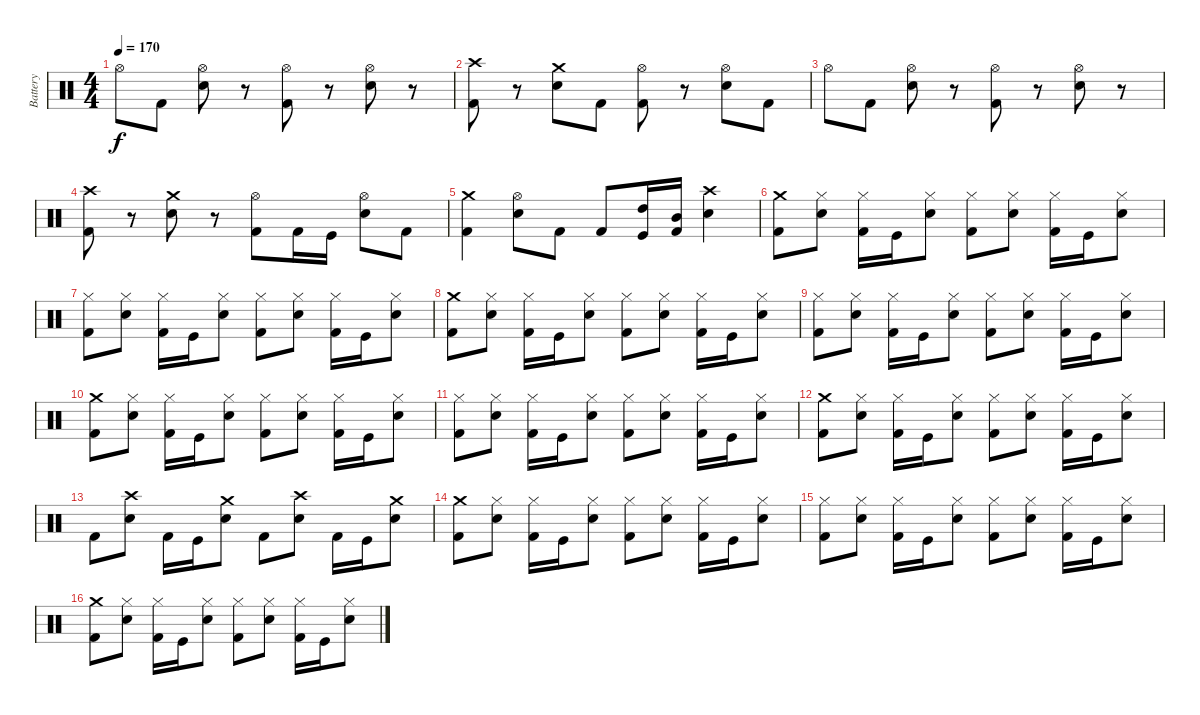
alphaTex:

\track ("Battery" "Battery") {instrument percussion}
\staff {score}
\articulation defaults
\ts (4 4)
\tempo 170
\clef neutral
\ks c "Hi-Hat (open)".8{dy f} "Kick (hit) 2".8
("Hi-Hat (open)" "Snare (hit) 2").8 r.8 ("Hi-Hat (open)" "Kick (hit) 2").8 r.8 ("Hi-Hat (open)" "Snare (hit) 2").8 r.8 |
("Crash high (hit)" "Kick (hit) 2").8 r.8 ("Crash medium (hit)" "Snare (hit) 2").8 "Kick (hit) 2".8 ("Hi-Hat (open)" "Kick (hit) 2").8 r.8 ("Hi-Hat (open)" "Snare (hit) 2").8 "Kick (hit) 2".8 |
"Hi-Hat (open)".8 "Kick (hit) 2".8 ("Hi-Hat (open)" "Snare (hit) 2").8 r.8 ("Hi-Hat (open)" "Kick (hit) 2").8 r.8 ("Hi-Hat (open)" "Snare (hit) 2").8 r.8 |
("Crash high (hit)" "Kick (hit) 2").8 r.8 ("Crash medium (hit)" "Snare (hit) 2").8 r.8 ("Hi-Hat (open)" "Kick (hit) 2").8 "Kick (hit) 2".16 "Kick (hit)".16 ("Hi-Hat (open)" "Snare (hit) 2").8 "Kick (hit) 2".8 |
("Crash medium (hit)" "Kick (hit) 2").4 ("Hi-Hat (open)" "Snare (hit) 2").8 "Kick (hit) 2".8 "Kick (hit) 2".8 ("High Tom (hit)" "Kick (hit)").16 ("Mid Tom (hit)" "Kick (hit) 2").16 ("Crash high (hit)" "Snare (hit) 2").4 |
("Crash medium (hit)" "Kick (hit) 2").8 ("Hi-Hat (closed)" "Snare (hit) 2").8 ("Hi-Hat (closed)" "Kick (hit) 2").16 "Kick (hit)".16 ("Hi-Hat (closed)" "Snare (hit) 2").8 ("Hi-Hat (closed)" "Kick (hit) 2").8 ("Hi-Hat (closed)" "Snare (hit) 2").8 ("Hi-Hat (closed)" "Kick (hit) 2").16 "Kick (hit)".16 ("Hi-Hat (closed)" "Snare (hit) 2").8 |
("Hi-Hat (closed)" "Kick (hit) 2").8 ("Hi-Hat (closed)" "Snare (hit) 2").8 ("Hi-Hat (closed)" "Kick (hit) 2").16 "Kick (hit)".16 ("Hi-Hat (closed)" "Snare (hit) 2").8 ("Hi-Hat (closed)" "Kick (hit) 2").8 ("Hi-Hat (closed)" "Snare (hit) 2").8 ("Hi-Hat (closed)" "Kick (hit) 2").16 "Kick (hit)".16 ("Hi-Hat (closed)" "Snare (hit) 2").8 |
("Crash medium (hit)" "Kick (hit) 2").8 ("Hi-Hat (closed)" "Snare (hit) 2").8 ("Hi-Hat (closed)" "Kick (hit) 2").16 "Kick (hit)".16 ("Hi-Hat (closed)" "Snare (hit) 2").8 ("Hi-Hat (closed)" "Kick (hit) 2").8 ("Hi-Hat (closed)" "Snare (hit) 2").8 ("Hi-Hat (closed)" "Kick (hit) 2").16 "Kick (hit)".16 ("Hi-Hat (closed)" "Snare (hit) 2").8 |
("Hi-Hat (closed)" "Kick (hit) 2").8 ("Hi-Hat (closed)" "Snare (hit) 2").8 ("Hi-Hat (closed)" "Kick (hit) 2").16 "Kick (hit)".16 ("Hi-Hat (closed)" "Snare (hit) 2").8 ("Hi-Hat (closed)" "Kick (hit) 2").8 ("Hi-Hat (closed)" "Snare (hit) 2").8 ("Hi-Hat (closed)" "Kick (hit) 2").16 "Kick (hit)".16 ("Hi-Hat (closed)" "Snare (hit) 2").8 |
("Crash medium (hit)" "Kick (hit) 2").8 ("Hi-Hat (closed)" "Snare (hit) 2").8 ("Hi-Hat (closed)" "Kick (hit) 2").16 "Kick (hit)".16 ("Hi-Hat (closed)" "Snare (hit) 2").8 ("Hi-Hat (closed)" "Kick (hit) 2").8 ("Hi-Hat (closed)" "Snare (hit) 2").8 ("Hi-Hat (closed)" "Kick (hit) 2").16 "Kick (hit)".16 ("Hi-Hat (closed)" "Snare (hit) 2").8 |
("Hi-Hat (closed)" "Kick (hit) 2").8 ("Hi-Hat (closed)" "Snare (hit) 2").8 ("Hi-Hat (closed)" "Kick (hit) 2").16 "Kick (hit)".16 ("Hi-Hat (closed)" "Snare (hit) 2").8 ("Hi-Hat (closed)" "Kick (hit) 2").8 ("Hi-Hat (closed)" "Snare (hit) 2").8 ("Hi-Hat (closed)" "Kick (hit) 2").16 "Kick (hit)".16 ("Hi-Hat (closed)" "Snare (hit) 2").8 |
("Crash medium (hit)" "Kick (hit) 2").8 ("Hi-Hat (closed)" "Snare (hit) 2").8 ("Hi-Hat (closed)" "Kick (hit) 2").16 "Kick (hit)".16 ("Hi-Hat (closed)" "Snare (hit) 2").8 ("Hi-Hat (closed)" "Kick (hit) 2").8 ("Hi-Hat (closed)" "Snare (hit) 2").8 ("Hi-Hat (closed)" "Kick (hit) 2").16 "Kick (hit)".16 ("Hi-Hat (closed)" "Snare (hit) 2").8 |
"Kick (hit) 2".8 ("Crash high (hit)" "Snare (hit) 2").8 "Kick (hit) 2".16 "Kick (hit)".16 ("Crash medium (hit)" "Snare (hit) 2").8 "Kick (hit) 2".8 ("Crash high (hit)" "Snare (hit) 2").8 "Kick (hit) 2".16 "Kick (hit)".16 ("Crash medium (hit)" "Snare (hit) 2").8 |
("Crash medium (hit)" "Kick (hit) 2").8 ("Hi-Hat (closed)" "Snare (hit) 2").8 ("Hi-Hat (closed)" "Kick (hit) 2").16 "Kick (hit)".16 ("Hi-Hat (closed)" "Snare (hit) 2").8 ("Hi-Hat (closed)" "Kick (hit) 2").8 ("Hi-Hat (closed)" "Snare (hit) 2").8 ("Hi-Hat (closed)" "Kick (hit) 2").16 "Kick (hit)".16 ("Hi-Hat (closed)" "Snare (hit) 2").8 |
("Hi-Hat (closed)" "Kick (hit) 2").8 ("Hi-Hat (closed)" "Snare (hit) 2").8 ("Hi-Hat (closed)" "Kick (hit) 2").16 "Kick (hit)".16 ("Hi-Hat (closed)" "Snare (hit) 2").8 ("Hi-Hat (closed)" "Kick (hit) 2").8 ("Hi-Hat (closed)" "Snare (hit) 2").8 ("Hi-Hat (closed)" "Kick (hit) 2").16 "Kick (hit)".16 ("Hi-Hat (closed)" "Snare (hit) 2").8 |
("Crash medium (hit)" "Kick (hit) 2").8 ("Hi-Hat (closed)" "Snare (hit) 2").8 ("Hi-Hat (closed)" "Kick (hit) 2").16 "Kick (hit)".16 ("Hi-Hat (closed)" "Snare (hit) 2").8 ("Hi-Hat (closed)" "Kick (hit) 2").8 ("Hi-Hat (closed)" "Snare (hit) 2").8 ("Hi-Hat (closed)" "Kick (hit) 2").16 "Kick (hit)".16 ("Hi-Hat (closed)" "Snare (hit) 2").8
